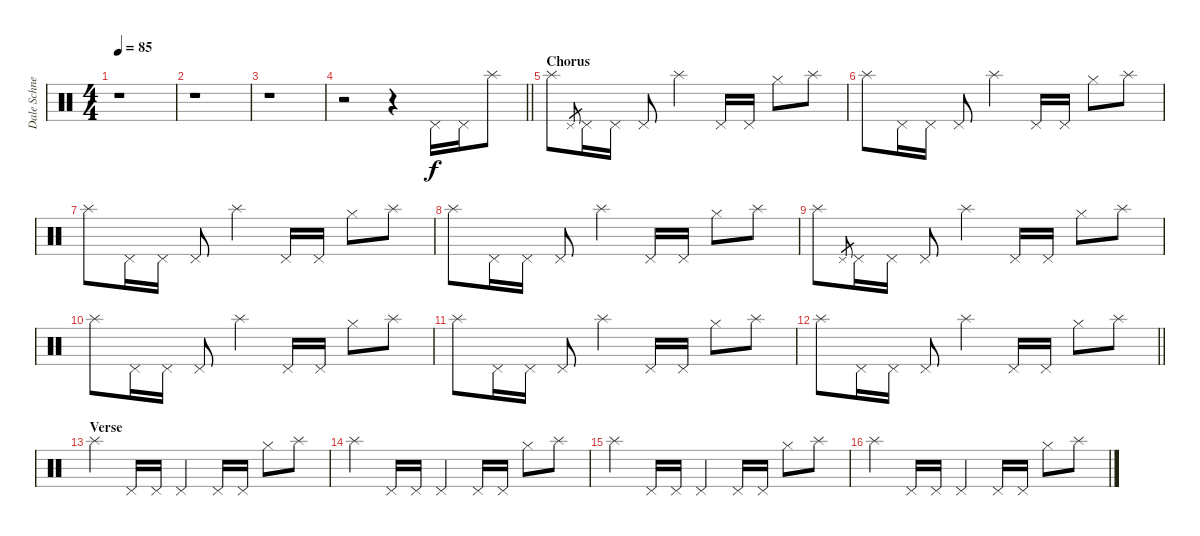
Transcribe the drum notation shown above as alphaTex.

\track ("Dale Schnettler (Drums)" "Dale Schne") {instrument percussion}
\staff {score}
\articulation defaults
\ts (4 4)
\tempo 85
\clef neutral
\ks c
r.1{dy f} |
r.1 |
r.1 |
\barLineRight lightlight
r.2 r.4 "Pedal Hi-Hat (hit)".16 "Pedal Hi-Hat (hit)".16 "Splash (hit)".8 |
\section ("" "Chorus")
"Splash (hit)".8 "Pedal Hi-Hat (hit)".8{gr} "Pedal Hi-Hat (hit)".16 "Pedal Hi-Hat (hit)".16 "Pedal Hi-Hat (hit)".8 "Splash (hit)".4 "Pedal Hi-Hat (hit)".16 "Pedal Hi-Hat (hit)".16 "Hi-Hat (closed)".8 "Splash (hit)".8 |
"Splash (hit)".8 "Pedal Hi-Hat (hit)".16 "Pedal Hi-Hat (hit)".16 "Pedal Hi-Hat (hit)".8 "Splash (hit)".4 "Pedal Hi-Hat (hit)".16 "Pedal Hi-Hat (hit)".16 "Hi-Hat (closed)".8 "Splash (hit)".8 |
"Splash (hit)".8 "Pedal Hi-Hat (hit)".16 "Pedal Hi-Hat (hit)".16 "Pedal Hi-Hat (hit)".8 "Splash (hit)".4 "Pedal Hi-Hat (hit)".16 "Pedal Hi-Hat (hit)".16 "Hi-Hat (closed)".8 "Splash (hit)".8 |
"Splash (hit)".8 "Pedal Hi-Hat (hit)".16 "Pedal Hi-Hat (hit)".16 "Pedal Hi-Hat (hit)".8 "Splash (hit)".4 "Pedal Hi-Hat (hit)".16 "Pedal Hi-Hat (hit)".16 "Hi-Hat (closed)".8 "Splash (hit)".8 |
"Splash (hit)".8 "Pedal Hi-Hat (hit)".8{gr} "Pedal Hi-Hat (hit)".16 "Pedal Hi-Hat (hit)".16 "Pedal Hi-Hat (hit)".8 "Splash (hit)".4 "Pedal Hi-Hat (hit)".16 "Pedal Hi-Hat (hit)".16 "Hi-Hat (closed)".8 "Splash (hit)".8 |
"Splash (hit)".8 "Pedal Hi-Hat (hit)".16 "Pedal Hi-Hat (hit)".16 "Pedal Hi-Hat (hit)".8 "Splash (hit)".4 "Pedal Hi-Hat (hit)".16 "Pedal Hi-Hat (hit)".16 "Hi-Hat (closed)".8 "Splash (hit)".8 |
"Splash (hit)".8 "Pedal Hi-Hat (hit)".16 "Pedal Hi-Hat (hit)".16 "Pedal Hi-Hat (hit)".8 "Splash (hit)".4 "Pedal Hi-Hat (hit)".16 "Pedal Hi-Hat (hit)".16 "Hi-Hat (closed)".8 "Splash (hit)".8 |
\barLineRight lightlight "Splash (hit)".8 "Pedal Hi-Hat (hit)".16 "Pedal Hi-Hat (hit)".16 "Pedal Hi-Hat (hit)".8 "Splash (hit)".4 "Pedal Hi-Hat (hit)".16 "Pedal Hi-Hat (hit)".16 "Hi-Hat (closed)".8 "Splash (hit)".8
|
\section ("" "Verse")
"Splash (hit)".4 "Pedal Hi-Hat (hit)".16 "Pedal Hi-Hat (hit)".16 "Pedal Hi-Hat (hit)".4 "Pedal Hi-Hat (hit)".16 "Pedal Hi-Hat (hit)".16 "Hi-Hat (closed)".8 "Splash (hit)".8 |
"Splash (hit)".4 "Pedal Hi-Hat (hit)".16 "Pedal Hi-Hat (hit)".16 "Pedal Hi-Hat (hit)".4 "Pedal Hi-Hat (hit)".16 "Pedal Hi-Hat (hit)".16 "Hi-Hat (closed)".8 "Splash (hit)".8 |
"Splash (hit)".4 "Pedal Hi-Hat (hit)".16 "Pedal Hi-Hat (hit)".16 "Pedal Hi-Hat (hit)".4 "Pedal Hi-Hat (hit)".16 "Pedal Hi-Hat (hit)".16 "Hi-Hat (closed)".8 "Splash (hit)".8 |
"Splash (hit)".4 "Pedal Hi-Hat (hit)".16 "Pedal Hi-Hat (hit)".16 "Pedal Hi-Hat (hit)".4 "Pedal Hi-Hat (hit)".16 "Pedal Hi-Hat (hit)".16 "Hi-Hat (closed)".8 "Splash (hit)".8
